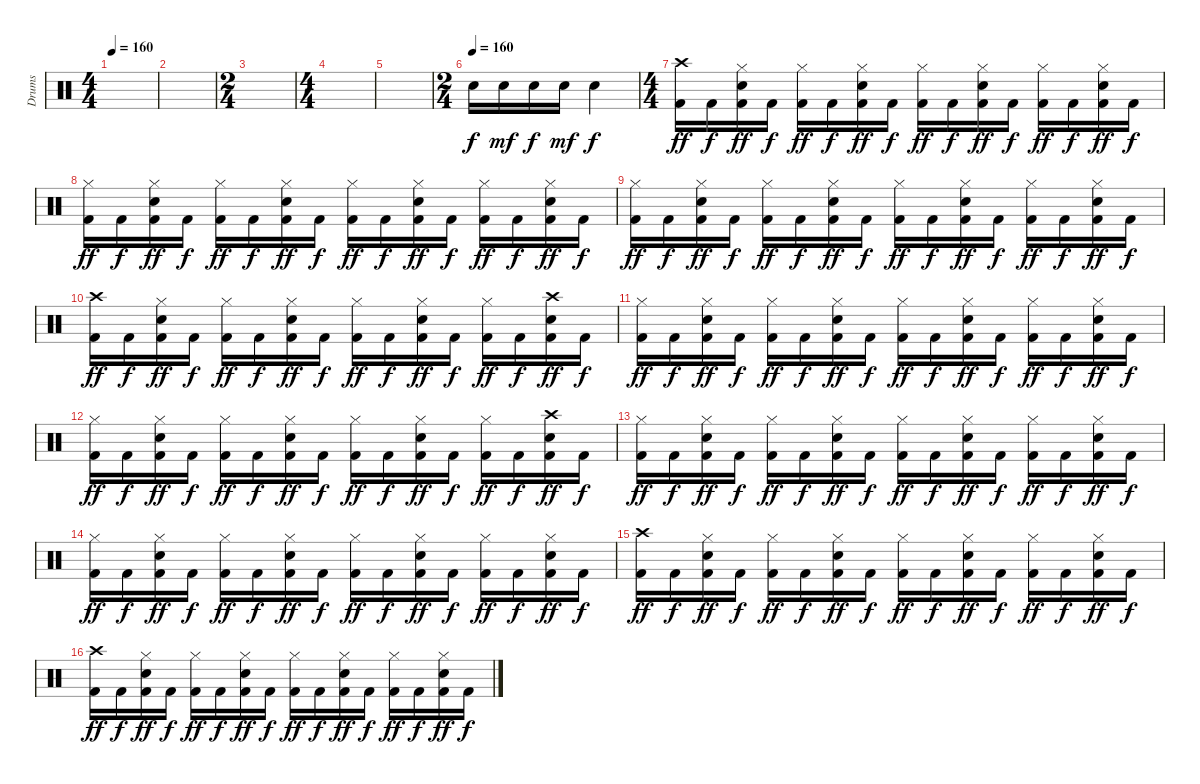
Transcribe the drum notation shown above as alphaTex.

\track ("Drums" "Drums") {instrument percussion}
\staff {score}
\articulation defaults
\ts (4 4)
\tempo 160
\tempo 120
\tempo 160
\clef neutral
\ks c
|
|
\ts (2 4)
|
\ts (4 4)
|
|
\ts (2 4)
\tempo (160)
"Snare (hit) 2".16 "Snare (hit) 2".16{dy mf} "Snare (hit) 2".16{dy f} "Snare (hit) 2".16{dy mf} "Snare (hit) 2".4{dy f} |
\ts (4 4)
("Crash high (hit)" "Kick (hit) 2").16{dy ff} "Kick (hit) 2".16{dy f} ("Hi-Hat (closed)" "Snare (hit) 2" "Kick (hit) 2").16{dy ff} "Kick (hit) 2".16{dy f} ("Hi-Hat (closed)" "Kick (hit) 2").16{dy ff} "Kick (hit) 2".16{dy f} ("Hi-Hat (closed)" "Snare (hit) 2" "Kick (hit) 2").16{dy ff} "Kick (hit) 2".16{dy f} ("Hi-Hat (closed)" "Kick (hit) 2").16{dy ff} "Kick (hit) 2".16{dy f} ("Hi-Hat (closed)" "Snare (hit) 2" "Kick (hit) 2").16{dy ff} "Kick (hit) 2".16{dy f} ("Hi-Hat (closed)" "Kick (hit) 2").16{dy ff} "Kick (hit) 2".16{dy f} ("Hi-Hat (closed)" "Snare (hit) 2" "Kick (hit) 2").16{dy ff} "Kick (hit) 2".16{dy f} |
("Hi-Hat (closed)" "Kick (hit) 2").16{dy ff} "Kick (hit) 2".16{dy f} ("Hi-Hat (closed)" "Snare (hit) 2" "Kick (hit) 2").16{dy ff} "Kick (hit) 2".16{dy f} ("Hi-Hat (closed)" "Kick (hit) 2").16{dy ff} "Kick (hit) 2".16{dy f} ("Hi-Hat (closed)" "Snare (hit) 2" "Kick (hit) 2").16{dy ff} "Kick (hit) 2".16{dy f} ("Hi-Hat (closed)" "Kick (hit) 2").16{dy ff} "Kick (hit) 2".16{dy f} ("Hi-Hat (closed)" "Snare (hit) 2" "Kick (hit) 2").16{dy ff} "Kick (hit) 2".16{dy f} ("Hi-Hat (closed)" "Kick (hit) 2").16{dy ff} "Kick (hit) 2".16{dy f} ("Hi-Hat (closed)" "Snare (hit) 2" "Kick (hit) 2").16{dy ff} "Kick (hit) 2".16{dy f} |
("Hi-Hat (closed)" "Kick (hit) 2").16{dy ff} "Kick (hit) 2".16{dy f} ("Hi-Hat (closed)" "Snare (hit) 2" "Kick (hit) 2").16{dy ff} "Kick (hit) 2".16{dy f} ("Hi-Hat (closed)" "Kick (hit) 2").16{dy ff} "Kick (hit) 2".16{dy f} ("Hi-Hat (closed)" "Snare (hit) 2" "Kick (hit) 2").16{dy ff} "Kick (hit) 2".16{dy f} ("Hi-Hat (closed)" "Kick (hit) 2").16{dy ff} "Kick (hit) 2".16{dy f} ("Hi-Hat (closed)" "Snare (hit) 2" "Kick (hit) 2").16{dy ff} "Kick (hit) 2".16{dy f} ("Hi-Hat (closed)" "Kick (hit) 2").16{dy ff} "Kick (hit) 2".16{dy f} ("Hi-Hat (closed)" "Snare (hit) 2" "Kick (hit) 2").16{dy ff} "Kick (hit) 2".16{dy f} |
("Crash high (hit)" "Kick (hit) 2").16{dy ff} "Kick (hit) 2".16{dy f} ("Hi-Hat (closed)" "Snare (hit) 2" "Kick (hit) 2").16{dy ff} "Kick (hit) 2".16{dy f} ("Hi-Hat (closed)" "Kick (hit) 2").16{dy ff} "Kick (hit) 2".16{dy f} ("Hi-Hat (closed)" "Snare (hit) 2" "Kick (hit) 2").16{dy ff} "Kick (hit) 2".16{dy f} ("Hi-Hat (closed)" "Kick (hit) 2").16{dy ff} "Kick (hit) 2".16{dy f} ("Hi-Hat (closed)" "Snare (hit) 2" "Kick (hit) 2").16{dy ff} "Kick (hit) 2".16{dy f} ("Hi-Hat (closed)" "Kick (hit) 2").16{dy ff} "Kick (hit) 2".16{dy f} ("Crash high (hit)" "Snare (hit) 2" "Kick (hit) 2").16{dy ff} "Kick (hit) 2".16{dy f} |
("Hi-Hat (closed)" "Kick (hit) 2").16{dy ff} "Kick (hit) 2".16{dy f} ("Hi-Hat (closed)" "Snare (hit) 2" "Kick (hit) 2").16{dy ff} "Kick (hit) 2".16{dy f} ("Hi-Hat (closed)" "Kick (hit) 2").16{dy ff} "Kick (hit) 2".16{dy f} ("Hi-Hat (closed)" "Snare (hit) 2" "Kick (hit) 2").16{dy ff} "Kick (hit) 2".16{dy f} ("Hi-Hat (closed)" "Kick (hit) 2").16{dy ff} "Kick (hit) 2".16{dy f} ("Hi-Hat (closed)" "Snare (hit) 2" "Kick (hit) 2").16{dy ff} "Kick (hit) 2".16{dy f} ("Hi-Hat (closed)" "Kick (hit) 2").16{dy ff} "Kick (hit) 2".16{dy f} ("Hi-Hat (closed)" "Snare (hit) 2" "Kick (hit) 2").16{dy ff} "Kick (hit) 2".16{dy f} |
("Hi-Hat (closed)" "Kick (hit) 2").16{dy ff} "Kick (hit) 2".16{dy f} ("Hi-Hat (closed)" "Snare (hit) 2" "Kick (hit) 2").16{dy ff} "Kick (hit) 2".16{dy f} ("Hi-Hat (closed)" "Kick (hit) 2").16{dy ff} "Kick (hit) 2".16{dy f} ("Hi-Hat (closed)" "Snare (hit) 2" "Kick (hit) 2").16{dy ff} "Kick (hit) 2".16{dy f} ("Hi-Hat (closed)" "Kick (hit) 2").16{dy ff} "Kick (hit) 2".16{dy f} ("Hi-Hat (closed)" "Snare (hit) 2" "Kick (hit) 2").16{dy ff} "Kick (hit) 2".16{dy f} ("Hi-Hat (closed)" "Kick (hit) 2").16{dy ff} "Kick (hit) 2".16{dy f} ("Crash high (hit)" "Snare (hit) 2" "Kick (hit) 2").16{dy ff} "Kick (hit) 2".16{dy f} |
("Hi-Hat (closed)" "Kick (hit) 2").16{dy ff} "Kick (hit) 2".16{dy f} ("Hi-Hat (closed)" "Snare (hit) 2" "Kick (hit) 2").16{dy ff} "Kick (hit) 2".16{dy f} ("Hi-Hat (closed)" "Kick (hit) 2").16{dy ff} "Kick (hit) 2".16{dy f} ("Hi-Hat (closed)" "Snare (hit) 2" "Kick (hit) 2").16{dy ff} "Kick (hit) 2".16{dy f} ("Hi-Hat (closed)" "Kick (hit) 2").16{dy ff} "Kick (hit) 2".16{dy f} ("Hi-Hat (closed)" "Snare (hit) 2" "Kick (hit) 2").16{dy ff} "Kick (hit) 2".16{dy f} ("Hi-Hat (closed)" "Kick (hit) 2").16{dy ff} "Kick (hit) 2".16{dy f} ("Hi-Hat (closed)" "Snare (hit) 2" "Kick (hit) 2").16{dy ff} "Kick (hit) 2".16{dy f} |
("Hi-Hat (closed)" "Kick (hit) 2").16{dy ff} "Kick (hit) 2".16{dy f} ("Hi-Hat (closed)" "Snare (hit) 2" "Kick (hit) 2").16{dy ff} "Kick (hit) 2".16{dy f} ("Hi-Hat (closed)" "Kick (hit) 2").16{dy ff} "Kick (hit) 2".16{dy f} ("Hi-Hat (closed)" "Snare (hit) 2" "Kick (hit) 2").16{dy ff} "Kick (hit) 2".16{dy f} ("Hi-Hat (closed)" "Kick (hit) 2").16{dy ff} "Kick (hit) 2".16{dy f} ("Hi-Hat (closed)" "Snare (hit) 2" "Kick (hit) 2").16{dy ff} "Kick (hit) 2".16{dy f} ("Hi-Hat (closed)" "Kick (hit) 2").16{dy ff} "Kick (hit) 2".16{dy f} ("Hi-Hat (closed)" "Snare (hit) 2" "Kick (hit) 2").16{dy ff} "Kick (hit) 2".16{dy f} |
("Crash high (hit)" "Kick (hit) 2").16{dy ff} "Kick (hit) 2".16{dy f} ("Hi-Hat (closed)" "Snare (hit) 2" "Kick (hit) 2").16{dy ff} "Kick (hit) 2".16{dy f} ("Hi-Hat (closed)" "Kick (hit) 2").16{dy ff} "Kick (hit) 2".16{dy f} ("Hi-Hat (closed)" "Snare (hit) 2" "Kick (hit) 2").16{dy ff} "Kick (hit) 2".16{dy f} ("Hi-Hat (closed)" "Kick (hit) 2").16{dy ff} "Kick (hit) 2".16{dy f} ("Hi-Hat (closed)" "Snare (hit) 2" "Kick (hit) 2").16{dy ff} "Kick (hit) 2".16{dy f} ("Hi-Hat (closed)" "Kick (hit) 2").16{dy ff} "Kick (hit) 2".16{dy f} ("Hi-Hat (closed)" "Snare (hit) 2" "Kick (hit) 2").16{dy ff} "Kick (hit) 2".16{dy f} |
("Crash high (hit)" "Kick (hit) 2").16{dy ff} "Kick (hit) 2".16{dy f} ("Hi-Hat (closed)" "Snare (hit) 2" "Kick (hit) 2").16{dy ff} "Kick (hit) 2".16{dy f} ("Hi-Hat (closed)" "Kick (hit) 2").16{dy ff} "Kick (hit) 2".16{dy f} ("Hi-Hat (closed)" "Snare (hit) 2" "Kick (hit) 2").16{dy ff} "Kick (hit) 2".16{dy f} ("Hi-Hat (closed)" "Kick (hit) 2").16{dy ff} "Kick (hit) 2".16{dy f} ("Hi-Hat (closed)" "Snare (hit) 2" "Kick (hit) 2").16{dy ff} "Kick (hit) 2".16{dy f} ("Hi-Hat (closed)" "Kick (hit) 2").16{dy ff} "Kick (hit) 2".16{dy f} ("Hi-Hat (closed)" "Snare (hit) 2" "Kick (hit) 2").16{dy ff} "Kick (hit) 2".16{dy f}
